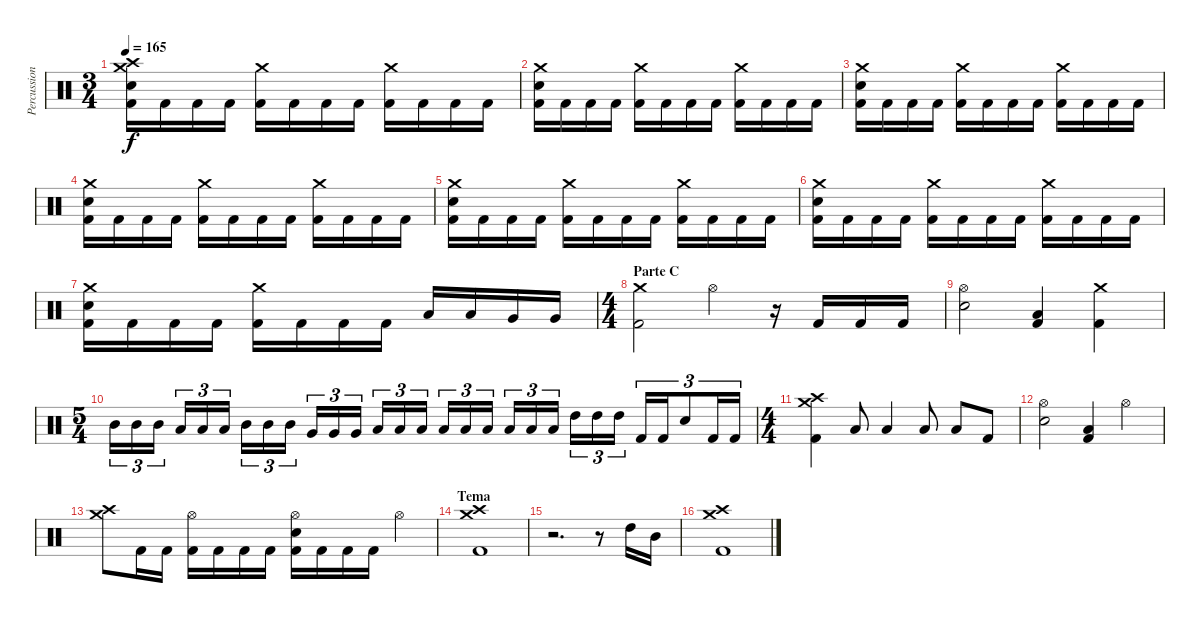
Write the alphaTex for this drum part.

\track ("Percussion" "Percussion") {instrument percussion}
\staff {score}
\articulation defaults
\ts (3 4)
\tempo 165
\clef neutral
\ks c
("Crash high (hit)" "Crash medium (hit)" "Snare (hit) 2" "Kick (hit) 2").16{dy f} "Kick (hit) 2".16 "Kick (hit) 2".16 "Kick (hit) 2".16 ("Crash medium (hit)" "Kick (hit) 2").16 "Kick (hit) 2".16 "Kick (hit) 2".16 "Kick (hit) 2".16 ("Crash medium (hit)" "Kick (hit) 2").16 "Kick (hit) 2".16 "Kick (hit) 2".16 "Kick (hit) 2".16 |
("Crash medium (hit)" "Snare (hit) 2" "Kick (hit) 2").16 "Kick (hit) 2".16 "Kick (hit) 2".16 "Kick (hit) 2".16 ("Crash medium (hit)" "Kick (hit) 2").16 "Kick (hit) 2".16 "Kick (hit) 2".16 "Kick (hit) 2".16 ("Crash medium (hit)" "Kick (hit) 2").16 "Kick (hit) 2".16 "Kick (hit) 2".16 "Kick (hit) 2".16 |
("Crash medium (hit)" "Snare (hit) 2" "Kick (hit) 2").16 "Kick (hit) 2".16 "Kick (hit) 2".16 "Kick (hit) 2".16 ("Crash medium (hit)" "Kick (hit) 2").16 "Kick (hit) 2".16 "Kick (hit) 2".16 "Kick (hit) 2".16 ("Crash medium (hit)" "Kick (hit) 2").16 "Kick (hit) 2".16 "Kick (hit) 2".16 "Kick (hit) 2".16 |
("Crash medium (hit)" "Snare (hit) 2" "Kick (hit) 2").16 "Kick (hit) 2".16 "Kick (hit) 2".16 "Kick (hit) 2".16 ("Crash medium (hit)" "Kick (hit) 2").16 "Kick (hit) 2".16 "Kick (hit) 2".16 "Kick (hit) 2".16 ("Crash medium (hit)" "Kick (hit) 2").16 "Kick (hit) 2".16 "Kick (hit) 2".16 "Kick (hit) 2".16 |
("Crash medium (hit)" "Snare (hit) 2" "Kick (hit) 2").16 "Kick (hit) 2".16 "Kick (hit) 2".16 "Kick (hit) 2".16 ("Crash medium (hit)" "Kick (hit) 2").16 "Kick (hit) 2".16 "Kick (hit) 2".16 "Kick (hit) 2".16 ("Crash medium (hit)" "Kick (hit) 2").16 "Kick (hit) 2".16 "Kick (hit) 2".16 "Kick (hit) 2".16 |
("Crash medium (hit)" "Snare (hit) 2" "Kick (hit) 2").16 "Kick (hit) 2".16 "Kick (hit) 2".16 "Kick (hit) 2".16 ("Crash medium (hit)" "Kick (hit) 2").16 "Kick (hit) 2".16 "Kick (hit) 2".16 "Kick (hit) 2".16 ("Crash medium (hit)" "Kick (hit) 2").16 "Kick (hit) 2".16 "Kick (hit) 2".16 "Kick (hit) 2".16 |
("Crash medium (hit)" "Snare (hit) 2" "Kick (hit) 2").16 "Kick (hit) 2".16 "Kick (hit) 2".16 "Kick (hit) 2".16 ("Crash medium (hit)" "Kick (hit) 2").16 "Kick (hit) 2".16 "Kick (hit) 2".16 "Kick (hit) 2".16 "Low Tom (hit)".16 "Low Tom (hit)".16 "Very Low Tom (hit)".16 "Very Low Tom (hit)".16 |
\ts (4 4)
\section ("" "Parte C")
("Crash medium (hit)" "Kick (hit) 2").2 "Hi-Hat (open)".4 r.16 "Kick (hit) 2".16 "Kick (hit) 2".16 "Kick (hit) 2".16 |
("Hi-Hat (open)" "Snare (hit) 2").2 ("Low Tom (hit)" "Kick (hit) 2").4 ("Crash medium (hit)" "Kick (hit) 2").4 |
\ts (5 4)
"Mid Tom (hit)".16{tu (3 2)} "Mid Tom (hit)".16{tu (3 2)} "Mid Tom (hit)".16{tu (3 2)} "Low Tom (hit)".16{tu (3 2)} "Low Tom (hit)".16{tu (3 2)} "Low Tom (hit)".16{tu (3 2)} "Mid Tom (hit)".16{tu (3 2)} "Mid Tom (hit)".16{tu (3 2)} "Mid Tom (hit)".16{tu (3 2)} "Very Low Tom (hit)".16{tu (3 2)} "Very Low Tom (hit)".16{tu (3 2)} "Very Low Tom (hit)".16{tu (3 2)} "Low Tom (hit)".16{tu (3 2)} "Low Tom (hit)".16{tu (3 2)} "Low Tom (hit)".16{tu (3 2)} "Low Floor Tom (hit)".16{tu (3 2)} "Low Floor Tom (hit)".16{tu (3 2)} "Low Floor Tom (hit)".16{tu (3 2)} "Low Tom (hit)".16{tu (3 2)} "Low Tom (hit)".16{tu (3 2)} "Low Tom (hit)".16{tu (3 2)} "High Tom (hit)".16{tu (3 2)} "High Tom (hit)".16{tu (3 2)} "High Tom (hit)".16{tu (3 2)} "Kick (hit) 2".16{tu (3 2)} "Kick (hit) 2".16{tu (3 2)} "Snare (hit) 2".8{tu (3 2)} "Kick (hit) 2".16{tu (3 2)} "Kick (hit) 2".16{tu (3 2)} |
\ts (4 4)
("Crash medium (hit)" "Crash high (hit)" "Kick (hit) 2").4 "Low Tom (hit)".8 "Low Tom (hit)".4 "Low Tom (hit)".8 "Low Tom (hit)".8 "Kick (hit) 2".8 |
("Hi-Hat (open)" "Snare (hit) 2").2 ("Low Tom (hit)" "Kick (hit) 2").4 "Hi-Hat (open)".4 |
("Crash high (hit)" "Crash medium (hit)").8 "Kick (hit) 2".16 "Kick (hit) 2".16 ("Hi-Hat (open)" "Kick (hit) 2").16 "Kick (hit) 2".16 "Kick (hit) 2".16 "Kick (hit) 2".16 ("Hi-Hat (open)" "Snare (hit) 2" "Kick (hit) 2").16 "Kick (hit) 2".16 "Kick (hit) 2".16 "Kick (hit) 2".16 "Hi-Hat (open)".4 |
\section ("" "Tema")
("Crash medium (hit)" "Crash high (hit)" "Kick (hit) 2").1 |
r.2{d} r.8 "High Tom (hit)".16 "Mid Tom (hit)".16 |
("Crash medium (hit)" "Crash high (hit)" "Kick (hit) 2").1
